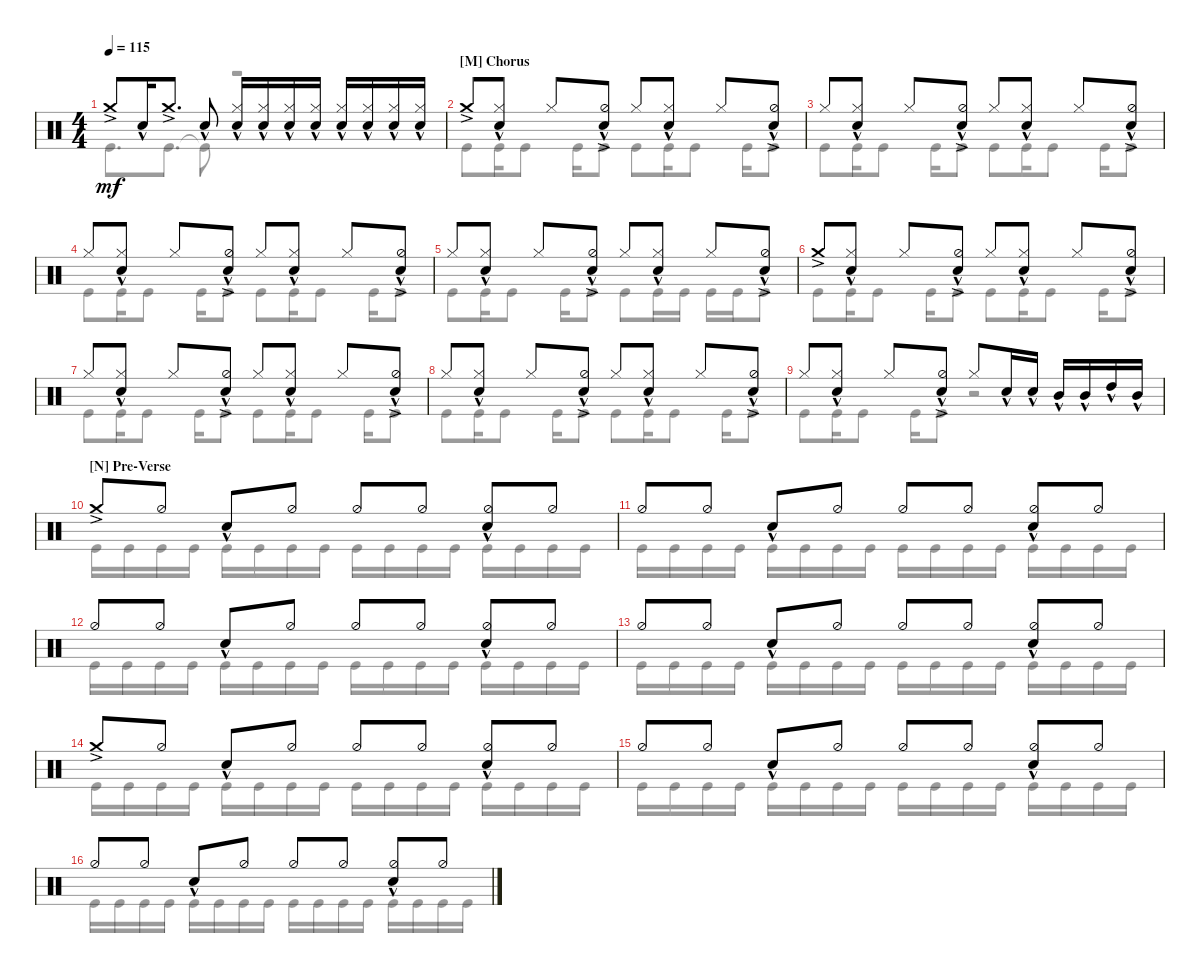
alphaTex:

\defaultSystemsLayout 4
\bracketExtendMode groupsimilarinstruments
\singleTrackTrackNamePolicy hidden
\multiTrackTrackNamePolicy hidden
\firstSystemTrackNameOrientation horizontal
\otherSystemsTrackNameOrientation horizontal
\track ("Maksim Udalov" "Drums") {instrument percussion}
\staff {score}
\articulation defaults
\voice
\ts (4 4)
\tempo 115
\clef neutral
\scale
1.02648
\ks c "Crash medium (hit)"{ac}.8{dy mf} "Snare (hit) 2"{hac}.16 "Crash medium (hit)"{ac}.8{d} "Snare (hit) 2"{hac}.8
("Snare (hit) 2"{hac} "Hi-Hat (closed)").16 ("Snare (hit) 2"{hac} "Hi-Hat (closed)").16 ("Snare (hit) 2"{hac} "Hi-Hat (closed)").16 ("Snare (hit) 2"{hac} "Hi-Hat (closed)").16 ("Snare (hit) 2"{hac} "Hi-Hat (closed)").16 ("Snare (hit) 2"{hac} "Hi-Hat (closed)").16 ("Snare (hit) 2"{hac} "Hi-Hat (closed)").16 ("Snare (hit) 2"{hac} "Hi-Hat (closed)").16 |
\section ("M" "Chorus")
\scale
0.973518 "Crash medium (hit)"{ac}.8 ("Hi-Hat (closed)" "Snare (hit) 2"{hac}).8 "Hi-Hat (closed)".8 ("Snare (hit) 2"{hac} "Hi-Hat (half)"{ac}).8 "Hi-Hat (closed)".8 ("Hi-Hat (closed)" "Snare (hit) 2"{hac}).8 "Hi-Hat (closed)".8 ("Snare (hit) 2"{hac} "Hi-Hat (half)"{ac}).8 |
\scale
1.02648 "Hi-Hat (closed)".8 ("Hi-Hat (closed)" "Snare (hit) 2"{hac}).8 "Hi-Hat (closed)".8 ("Snare (hit) 2"{hac} "Hi-Hat (half)"{ac}).8 "Hi-Hat (closed)".8 ("Hi-Hat (closed)" "Snare (hit) 2"{hac}).8 "Hi-Hat (closed)".8 ("Snare (hit) 2"{hac} "Hi-Hat (half)"{ac}).8 |
\scale
0.973518 "Hi-Hat (closed)".8 ("Hi-Hat (closed)" "Snare (hit) 2"{hac}).8 "Hi-Hat (closed)".8 ("Snare (hit) 2"{hac} "Hi-Hat (half)"{ac}).8 "Hi-Hat (closed)".8 ("Hi-Hat (closed)" "Snare (hit) 2"{hac}).8 "Hi-Hat (closed)".8 ("Snare (hit) 2"{hac} "Hi-Hat (half)"{ac}).8 |
\scale
1.02648 "Hi-Hat (closed)".8 ("Hi-Hat (closed)" "Snare (hit) 2"{hac}).8 "Hi-Hat (closed)".8 ("Snare (hit) 2"{hac} "Hi-Hat (half)"{ac}).8 "Hi-Hat (closed)".8 ("Hi-Hat (closed)" "Snare (hit) 2"{hac}).8 "Hi-Hat (closed)".8 ("Snare (hit) 2"{hac} "Hi-Hat (half)"{ac}).8 |
\scale
0.973518 "Crash medium (hit)"{ac}.8 ("Hi-Hat (closed)" "Snare (hit) 2"{hac}).8 "Hi-Hat (closed)".8 ("Snare (hit) 2"{hac} "Hi-Hat (half)"{ac}).8 "Hi-Hat (closed)".8 ("Hi-Hat (closed)" "Snare (hit) 2"{hac}).8 "Hi-Hat (closed)".8 ("Snare (hit) 2"{hac} "Hi-Hat (half)"{ac}).8 |
\scale
1.02648 "Hi-Hat (closed)".8 ("Hi-Hat (closed)" "Snare (hit) 2"{hac}).8 "Hi-Hat (closed)".8 ("Snare (hit) 2"{hac} "Hi-Hat (half)"{ac}).8 "Hi-Hat (closed)".8 ("Hi-Hat (closed)" "Snare (hit) 2"{hac}).8 "Hi-Hat (closed)".8 ("Snare (hit) 2"{hac} "Hi-Hat (half)"{ac}).8 |
\scale
0.973518 "Hi-Hat (closed)".8 ("Hi-Hat (closed)" "Snare (hit) 2"{hac}).8 "Hi-Hat (closed)".8 ("Snare (hit) 2"{hac} "Hi-Hat (half)"{ac}).8 "Hi-Hat (closed)".8 ("Hi-Hat (closed)" "Snare (hit) 2"{hac}).8 "Hi-Hat (closed)".8 ("Snare (hit) 2"{hac} "Hi-Hat (half)"{ac}).8 |
\scale
1.02648 "Hi-Hat (closed)".8 ("Hi-Hat (closed)" "Snare (hit) 2"{hac}).8 "Hi-Hat (closed)".8 ("Snare (hit) 2"{hac} "Hi-Hat (half)"{ac}).8 "Hi-Hat (closed)".8 "Snare (hit) 2"{hac}.16 "Snare (hit) 2"{hac}.16 "Mid Tom (hit)"{hac}.16 "Mid Tom (hit)"{hac}.16 "High Tom (hit)"{hac}.16 "Mid Tom (hit)"{hac}.16 |
\section ("N" "Pre-Verse")
\scale
0.973518 "Crash medium (hit)"{ac}.8 "Hi-Hat (half)".8 "Snare (hit) 2"{hac}.8 "Hi-Hat (half)".8 "Hi-Hat (half)".8 "Hi-Hat (half)".8 ("Hi-Hat (half)" "Snare (hit) 2"{hac}).8 "Hi-Hat (half)".8 |
\scale
1.02648 "Hi-Hat (half)".8 "Hi-Hat (half)".8 "Snare (hit) 2"{hac}.8 "Hi-Hat (half)".8 "Hi-Hat (half)".8 "Hi-Hat (half)".8 ("Hi-Hat (half)" "Snare (hit) 2"{hac}).8 "Hi-Hat (half)".8 |
\scale
0.973518 "Hi-Hat (half)".8 "Hi-Hat (half)".8 "Snare (hit) 2"{hac}.8 "Hi-Hat (half)".8 "Hi-Hat (half)".8 "Hi-Hat (half)".8 ("Hi-Hat (half)" "Snare (hit) 2"{hac}).8 "Hi-Hat (half)".8 |
\scale
1.02648 "Hi-Hat (half)".8 "Hi-Hat (half)".8 "Snare (hit) 2"{hac}.8 "Hi-Hat (half)".8 "Hi-Hat (half)".8 "Hi-Hat (half)".8 ("Hi-Hat (half)" "Snare (hit) 2"{hac}).8 "Hi-Hat (half)".8 |
\scale
0.973518 "Crash medium (hit)"{ac}.8 "Hi-Hat (half)".8 "Snare (hit) 2"{hac}.8 "Hi-Hat (half)".8 "Hi-Hat (half)".8 "Hi-Hat (half)".8 ("Hi-Hat (half)" "Snare (hit) 2"{hac}).8 "Hi-Hat (half)".8 |
\scale
1.02648 "Hi-Hat (half)".8 "Hi-Hat (half)".8 "Snare (hit) 2"{hac}.8 "Hi-Hat (half)".8 "Hi-Hat (half)".8 "Hi-Hat (half)".8 ("Hi-Hat (half)" "Snare (hit) 2"{hac}).8 "Hi-Hat (half)".8 |
\scale
0.973518 "Hi-Hat (half)".8 "Hi-Hat (half)".8 "Snare (hit) 2"{hac}.8 "Hi-Hat (half)".8 "Hi-Hat (half)".8 "Hi-Hat (half)".8 ("Hi-Hat (half)" "Snare (hit) 2"{hac}).8 "Hi-Hat (half)".8
\voice
\clef neutral
\ottava regular
\simile none
\scale
1.02648
\ks c "Kick (hit)".8{d dy mf} "Kick (hit)".8{d} "Kick (hit)"{t}.8
r.2 |
\scale
0.973518 "Kick (hit)".8 "Kick (hit)".16 "Kick (hit)".8 "Kick (hit)".16 "Kick (hit)".8 "Kick (hit)".8 "Kick (hit)".16 "Kick (hit)".8 "Kick (hit)".16 "Kick (hit)".8 |
\scale
1.02648 "Kick (hit)".8 "Kick (hit)".16 "Kick (hit)".8 "Kick (hit)".16 "Kick (hit)".8 "Kick (hit)".8 "Kick (hit)".16 "Kick (hit)".8 "Kick (hit)".16 "Kick (hit)".8 |
\scale
0.973518 "Kick (hit)".8 "Kick (hit)".16 "Kick (hit)".8 "Kick (hit)".16 "Kick (hit)".8 "Kick (hit)".8 "Kick (hit)".16 "Kick (hit)".8 "Kick (hit)".16 "Kick (hit)".8 |
\scale
1.02648 "Kick (hit)".8 "Kick (hit)".16 "Kick (hit)".8 "Kick (hit)".16 "Kick (hit)".8 "Kick (hit)".8 "Kick (hit)".16 "Kick (hit)".16 "Kick (hit)".16 "Kick (hit)".16 "Kick (hit)".8 |
\scale
0.973518 "Kick (hit)".8 "Kick (hit)".16 "Kick (hit)".8 "Kick (hit)".16 "Kick (hit)".8 "Kick (hit)".8 "Kick (hit)".16 "Kick (hit)".8 "Kick (hit)".16 "Kick (hit)".8 |
\scale
1.02648 "Kick (hit)".8 "Kick (hit)".16 "Kick (hit)".8 "Kick (hit)".16 "Kick (hit)".8 "Kick (hit)".8 "Kick (hit)".16 "Kick (hit)".8 "Kick (hit)".16 "Kick (hit)".8 |
\scale
0.973518 "Kick (hit)".8 "Kick (hit)".16 "Kick (hit)".8 "Kick (hit)".16 "Kick (hit)".8 "Kick (hit)".8 "Kick (hit)".16 "Kick (hit)".8 "Kick (hit)".16 "Kick (hit)".8 |
\scale
1.02648 "Kick (hit)".8 "Kick (hit)".16 "Kick (hit)".8 "Kick (hit)".16 "Kick (hit)".8 r.2 |
\scale
0.973518 "Kick (hit)".16 "Kick (hit)".16 "Kick (hit)".16 "Kick (hit)".16 "Kick (hit)".16 "Kick (hit)".16 "Kick (hit)".16 "Kick (hit)".16 "Kick (hit)".16 "Kick (hit)".16 "Kick (hit)".16 "Kick (hit)".16 "Kick (hit)".16 "Kick (hit)".16 "Kick (hit)".16 "Kick (hit)".16 |
\scale
1.02648 "Kick (hit)".16 "Kick (hit)".16 "Kick (hit)".16 "Kick (hit)".16 "Kick (hit)".16 "Kick (hit)".16 "Kick (hit)".16 "Kick (hit)".16 "Kick (hit)".16 "Kick (hit)".16 "Kick (hit)".16 "Kick (hit)".16 "Kick (hit)".16 "Kick (hit)".16 "Kick (hit)".16 "Kick (hit)".16 |
\scale
0.973518 "Kick (hit)".16 "Kick (hit)".16 "Kick (hit)".16 "Kick (hit)".16 "Kick (hit)".16 "Kick (hit)".16 "Kick (hit)".16 "Kick (hit)".16 "Kick (hit)".16 "Kick (hit)".16 "Kick (hit)".16 "Kick (hit)".16 "Kick (hit)".16 "Kick (hit)".16 "Kick (hit)".16 "Kick (hit)".16 |
\scale
1.02648 "Kick (hit)".16 "Kick (hit)".16 "Kick (hit)".16 "Kick (hit)".16 "Kick (hit)".16 "Kick (hit)".16 "Kick (hit)".16 "Kick (hit)".16 "Kick (hit)".16 "Kick (hit)".16 "Kick (hit)".16 "Kick (hit)".16 "Kick (hit)".16 "Kick (hit)".16 "Kick (hit)".16 "Kick (hit)".16 |
\scale
0.973518 "Kick (hit)".16 "Kick (hit)".16 "Kick (hit)".16 "Kick (hit)".16 "Kick (hit)".16 "Kick (hit)".16 "Kick (hit)".16 "Kick (hit)".16 "Kick (hit)".16 "Kick (hit)".16 "Kick (hit)".16 "Kick (hit)".16 "Kick (hit)".16 "Kick (hit)".16 "Kick (hit)".16 "Kick (hit)".16 |
\scale
1.02648 "Kick (hit)".16 "Kick (hit)".16 "Kick (hit)".16 "Kick (hit)".16 "Kick (hit)".16 "Kick (hit)".16 "Kick (hit)".16 "Kick (hit)".16 "Kick (hit)".16 "Kick (hit)".16 "Kick (hit)".16 "Kick (hit)".16 "Kick (hit)".16 "Kick (hit)".16 "Kick (hit)".16 "Kick (hit)".16 |
\scale
0.973518 "Kick (hit)".16 "Kick (hit)".16 "Kick (hit)".16 "Kick (hit)".16 "Kick (hit)".16 "Kick (hit)".16 "Kick (hit)".16 "Kick (hit)".16 "Kick (hit)".16 "Kick (hit)".16 "Kick (hit)".16 "Kick (hit)".16 "Kick (hit)".16 "Kick (hit)".16 "Kick (hit)".16 "Kick (hit)".16
